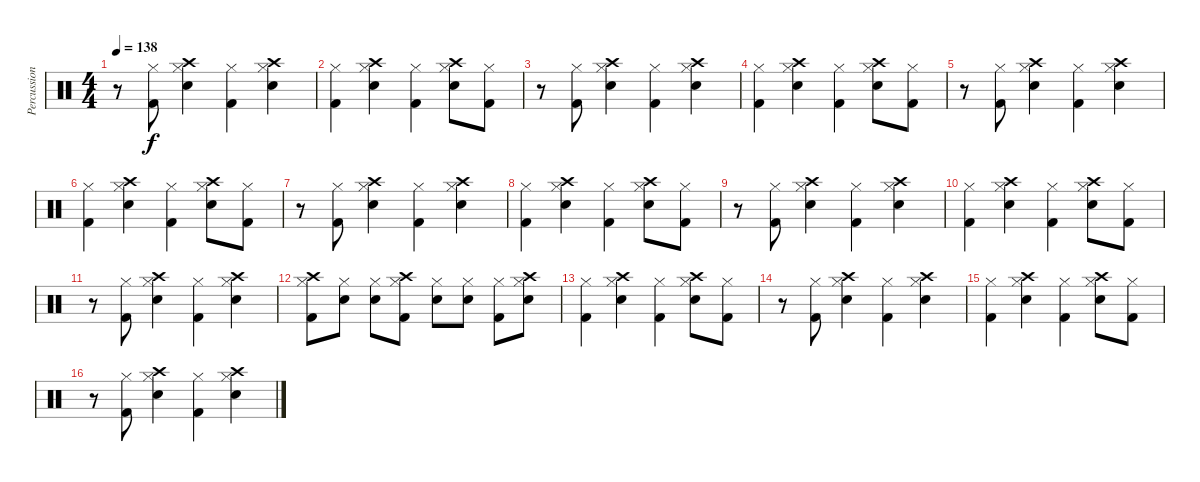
\track ("Percussion" "Percussion") {instrument percussion}
\staff {score}
\articulation defaults
\ts (4 4)
\tempo 138
\clef neutral
\ks c
r.8{dy f} ("Hi-Hat (closed)" "Kick (hit) 2").8 ("Hi-Hat (closed)" "Crash high (hit)" "Electric Snare (hit)").4 ("Hi-Hat (closed)" "Kick (hit) 2").4 ("Hi-Hat (closed)" "Crash high (hit)" "Electric Snare (hit)").4 |
("Hi-Hat (closed)" "Kick (hit) 2").4 ("Hi-Hat (closed)" "Crash high (hit)" "Electric Snare (hit)").4 ("Hi-Hat (closed)" "Kick (hit) 2").4 ("Hi-Hat (closed)" "Crash high (hit)" "Electric Snare (hit)").8 ("Hi-Hat (closed)" "Kick (hit) 2").8 |
r.8 ("Hi-Hat (closed)" "Kick (hit) 2").8 ("Hi-Hat (closed)" "Crash high (hit)" "Electric Snare (hit)").4 ("Hi-Hat (closed)" "Kick (hit) 2").4 ("Hi-Hat (closed)" "Crash high (hit)" "Electric Snare (hit)").4 |
("Hi-Hat (closed)" "Kick (hit) 2").4 ("Hi-Hat (closed)" "Crash high (hit)" "Electric Snare (hit)").4 ("Hi-Hat (closed)" "Kick (hit) 2").4 ("Hi-Hat (closed)" "Crash high (hit)" "Electric Snare (hit)").8 ("Hi-Hat (closed)" "Kick (hit) 2").8 |
r.8 ("Hi-Hat (closed)" "Kick (hit) 2").8 ("Hi-Hat (closed)" "Crash high (hit)" "Electric Snare (hit)").4 ("Hi-Hat (closed)" "Kick (hit) 2").4 ("Hi-Hat (closed)" "Crash high (hit)" "Electric Snare (hit)").4 |
("Hi-Hat (closed)" "Kick (hit) 2").4 ("Hi-Hat (closed)" "Crash high (hit)" "Electric Snare (hit)").4 ("Hi-Hat (closed)" "Kick (hit) 2").4 ("Hi-Hat (closed)" "Crash high (hit)" "Electric Snare (hit)").8 ("Hi-Hat (closed)" "Kick (hit) 2").8 |
r.8 ("Hi-Hat (closed)" "Kick (hit) 2").8 ("Hi-Hat (closed)" "Crash high (hit)" "Electric Snare (hit)").4 ("Hi-Hat (closed)" "Kick (hit) 2").4 ("Hi-Hat (closed)" "Crash high (hit)" "Electric Snare (hit)").4 |
("Hi-Hat (closed)" "Kick (hit) 2").4 ("Hi-Hat (closed)" "Crash high (hit)" "Electric Snare (hit)").4 ("Hi-Hat (closed)" "Kick (hit) 2").4 ("Hi-Hat (closed)" "Crash high (hit)" "Electric Snare (hit)").8 ("Hi-Hat (closed)" "Kick (hit) 2").8 |
r.8 ("Hi-Hat (closed)" "Kick (hit) 2").8 ("Hi-Hat (closed)" "Crash high (hit)" "Electric Snare (hit)").4 ("Hi-Hat (closed)" "Kick (hit) 2").4 ("Hi-Hat (closed)" "Crash high (hit)" "Electric Snare (hit)").4 |
("Hi-Hat (closed)" "Kick (hit) 2").4 ("Hi-Hat (closed)" "Crash high (hit)" "Electric Snare (hit)").4 ("Hi-Hat (closed)" "Kick (hit) 2").4 ("Hi-Hat (closed)" "Crash high (hit)" "Electric Snare (hit)").8 ("Hi-Hat (closed)" "Kick (hit) 2").8 |
r.8 ("Hi-Hat (closed)" "Kick (hit) 2").8 ("Hi-Hat (closed)" "Crash high (hit)" "Electric Snare (hit)").4 ("Hi-Hat (closed)" "Kick (hit) 2").4 ("Hi-Hat (closed)" "Crash high (hit)" "Electric Snare (hit)").4 |
("Hi-Hat (closed)" "Crash high (hit)" "Kick (hit) 2").8 ("Hi-Hat (closed)" "Electric Snare (hit)").8 ("Hi-Hat (closed)" "Electric Snare (hit)").8 ("Hi-Hat (closed)" "Crash high (hit)" "Kick (hit) 2").8 ("Hi-Hat (closed)" "Electric Snare (hit)").8 ("Hi-Hat (closed)" "Electric Snare (hit)").8 ("Hi-Hat (closed)" "Kick (hit) 2").8 ("Hi-Hat (closed)" "Crash high (hit)" "Electric Snare (hit)").8 |
("Hi-Hat (closed)" "Kick (hit) 2").4 ("Hi-Hat (closed)" "Crash high (hit)" "Electric Snare (hit)").4 ("Hi-Hat (closed)" "Kick (hit) 2").4 ("Hi-Hat (closed)" "Crash high (hit)" "Electric Snare (hit)").8 ("Hi-Hat (closed)" "Kick (hit) 2").8 |
r.8 ("Hi-Hat (closed)" "Kick (hit) 2").8 ("Hi-Hat (closed)" "Crash high (hit)" "Electric Snare (hit)").4 ("Hi-Hat (closed)" "Kick (hit) 2").4 ("Hi-Hat (closed)" "Crash high (hit)" "Electric Snare (hit)").4 |
("Hi-Hat (closed)" "Kick (hit) 2").4 ("Hi-Hat (closed)" "Crash high (hit)" "Electric Snare (hit)").4 ("Hi-Hat (closed)" "Kick (hit) 2").4 ("Hi-Hat (closed)" "Crash high (hit)" "Electric Snare (hit)").8 ("Hi-Hat (closed)" "Kick (hit) 2").8 |
r.8 ("Hi-Hat (closed)" "Kick (hit) 2").8 ("Hi-Hat (closed)" "Crash high (hit)" "Electric Snare (hit)").4 ("Hi-Hat (closed)" "Kick (hit) 2").4 ("Hi-Hat (closed)" "Crash high (hit)" "Electric Snare (hit)").4
